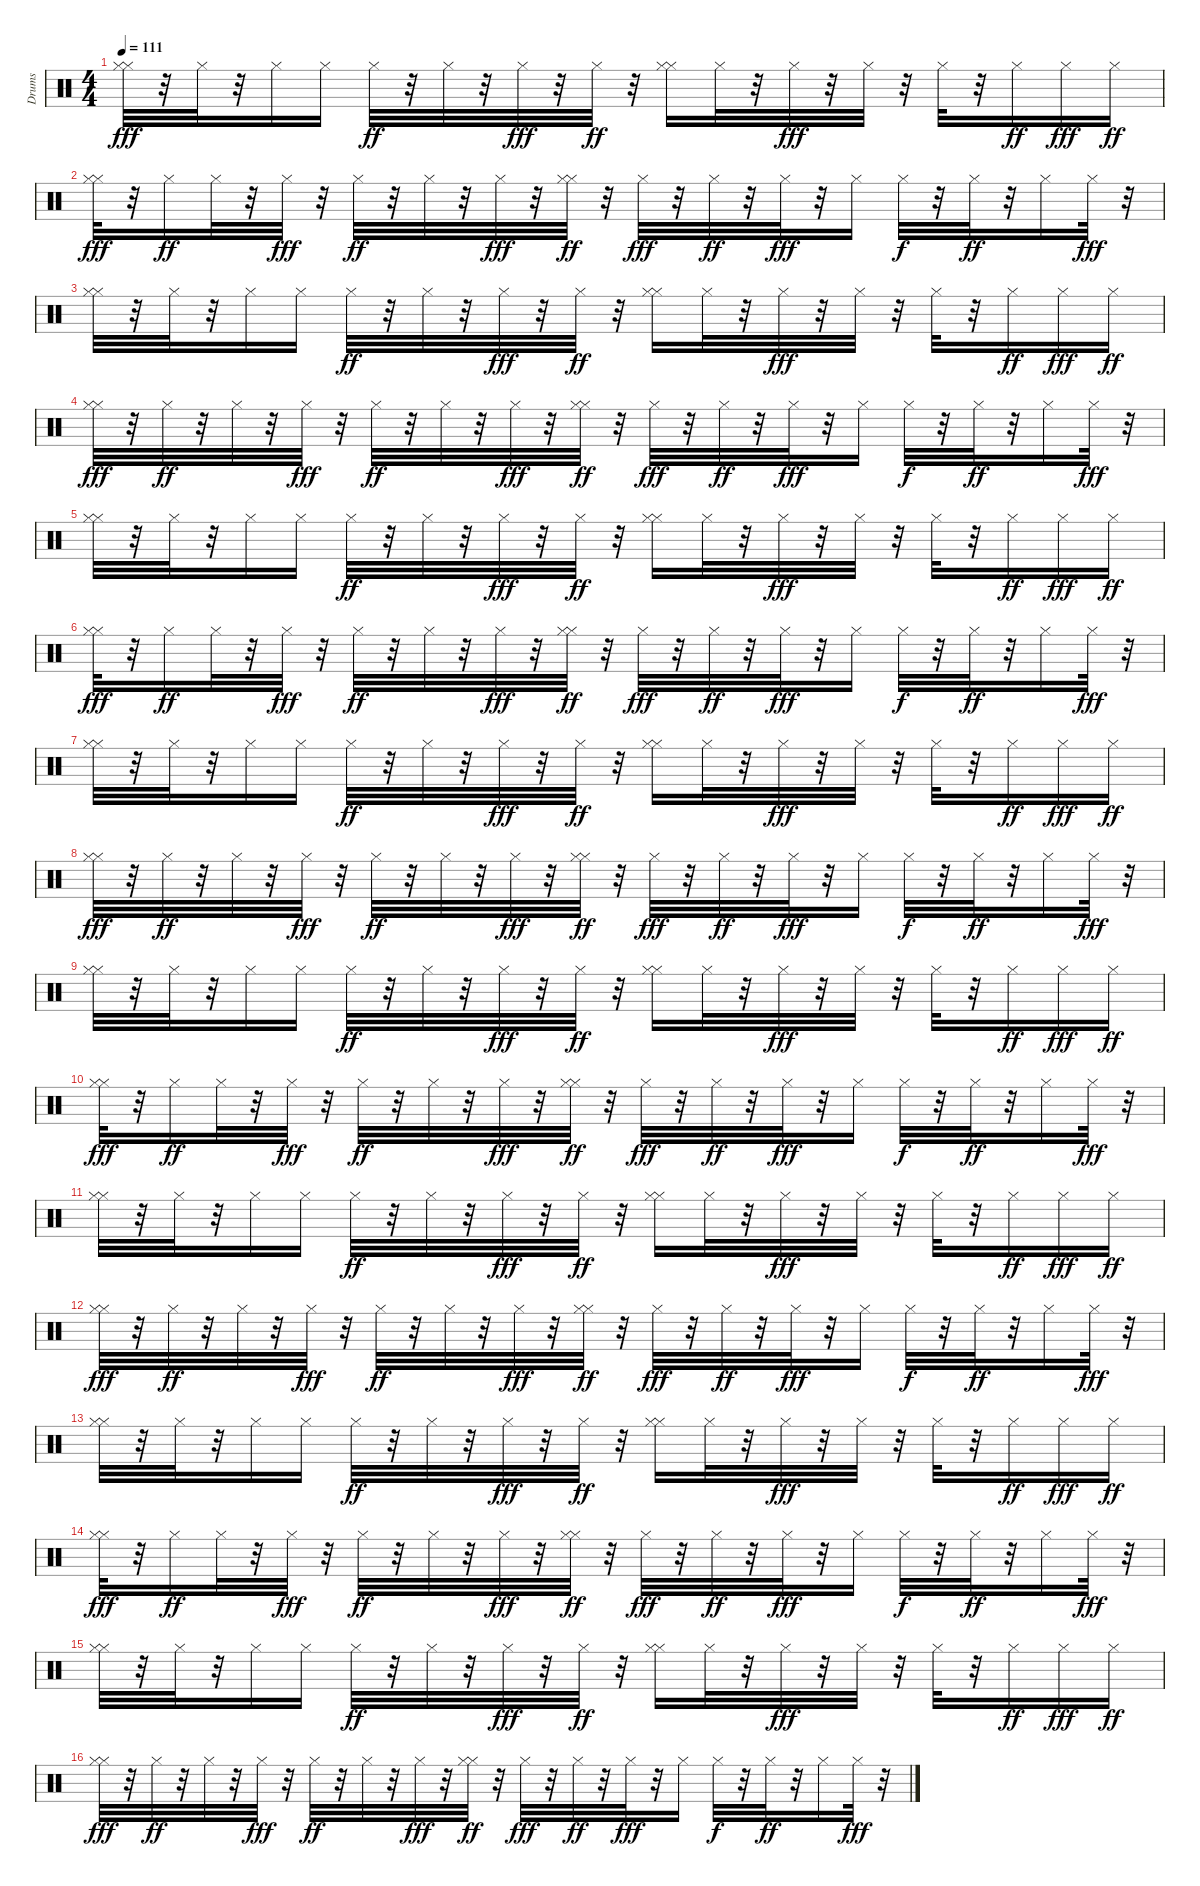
\track ("Drums" "Drums") {instrument percussion}
\staff {score}
\articulation defaults
\ts (4 4)
\tempo 111
\clef neutral
\ks c
("Hi-Hat (closed)" "Hi-Hat (closed)").32{dy fff} r.32 "Hi-Hat (closed)".32 r.32 "Hi-Hat (closed)".16 "Hi-Hat (closed)".16 "Hi-Hat (closed)".32{dy ff} r.32 "Hi-Hat (closed)".32 r.32 "Hi-Hat (closed)".32{dy fff} r.32 "Hi-Hat (closed)".32{dy ff} r.32 ("Hi-Hat (closed)" "Hi-Hat (closed)").16 "Hi-Hat (closed)".32 r.32 "Hi-Hat (closed)".32{dy fff} r.32 "Hi-Hat (closed)".32 r.32 "Hi-Hat (closed)".32 r.32 "Hi-Hat (closed)".16{dy ff} "Hi-Hat (closed)".16{dy fff} "Hi-Hat (closed)".16{dy ff} |
("Hi-Hat (closed)" "Hi-Hat (closed)").32{dy fff} r.32 "Hi-Hat (closed)".16{dy ff} "Hi-Hat (closed)".32 r.32 "Hi-Hat (closed)".32{dy fff} r.32 "Hi-Hat (closed)".32{dy ff} r.32 "Hi-Hat (closed)".32 r.32 "Hi-Hat (closed)".32{dy fff} r.32 ("Hi-Hat (closed)" "Hi-Hat (closed)").32{dy ff} r.32 "Hi-Hat (closed)".32{dy fff} r.32 "Hi-Hat (closed)".32{dy ff} r.32 "Hi-Hat (closed)".32{dy fff} r.32 "Hi-Hat (closed)".16 "Hi-Hat (closed)".32{dy f} r.32 "Hi-Hat (closed)".32{dy ff} r.32 "Hi-Hat (closed)".16 "Hi-Hat (closed)".32{dy fff} r.32 |
("Hi-Hat (closed)" "Hi-Hat (closed)").32 r.32 "Hi-Hat (closed)".32 r.32 "Hi-Hat (closed)".16 "Hi-Hat (closed)".16 "Hi-Hat (closed)".32{dy ff} r.32 "Hi-Hat (closed)".32 r.32 "Hi-Hat (closed)".32{dy fff} r.32 "Hi-Hat (closed)".32{dy ff} r.32 ("Hi-Hat (closed)" "Hi-Hat (closed)").16 "Hi-Hat (closed)".32 r.32 "Hi-Hat (closed)".32{dy fff} r.32 "Hi-Hat (closed)".32 r.32 "Hi-Hat (closed)".32 r.32 "Hi-Hat (closed)".16{dy ff} "Hi-Hat (closed)".16{dy fff} "Hi-Hat (closed)".16{dy ff} |
("Hi-Hat (closed)" "Hi-Hat (closed)").32{dy fff} r.32 "Hi-Hat (closed)".32{dy ff} r.32 "Hi-Hat (closed)".32 r.32 "Hi-Hat (closed)".32{dy fff} r.32 "Hi-Hat (closed)".32{dy ff} r.32 "Hi-Hat (closed)".32 r.32 "Hi-Hat (closed)".32{dy fff} r.32 ("Hi-Hat (closed)" "Hi-Hat (closed)").32{dy ff} r.32 "Hi-Hat (closed)".32{dy fff} r.32 "Hi-Hat (closed)".32{dy ff} r.32 "Hi-Hat (closed)".32{dy fff} r.32 "Hi-Hat (closed)".16 "Hi-Hat (closed)".32{dy f} r.32 "Hi-Hat (closed)".32{dy ff} r.32 "Hi-Hat (closed)".16 "Hi-Hat (closed)".32{dy fff} r.32 |
("Hi-Hat (closed)" "Hi-Hat (closed)").32 r.32 "Hi-Hat (closed)".32 r.32 "Hi-Hat (closed)".16 "Hi-Hat (closed)".16 "Hi-Hat (closed)".32{dy ff} r.32 "Hi-Hat (closed)".32 r.32 "Hi-Hat (closed)".32{dy fff} r.32 "Hi-Hat (closed)".32{dy ff} r.32 ("Hi-Hat (closed)" "Hi-Hat (closed)").16 "Hi-Hat (closed)".32 r.32 "Hi-Hat (closed)".32{dy fff} r.32 "Hi-Hat (closed)".32 r.32 "Hi-Hat (closed)".32 r.32 "Hi-Hat (closed)".16{dy ff} "Hi-Hat (closed)".16{dy fff} "Hi-Hat (closed)".16{dy ff} |
("Hi-Hat (closed)" "Hi-Hat (closed)").32{dy fff} r.32 "Hi-Hat (closed)".16{dy ff} "Hi-Hat (closed)".32 r.32 "Hi-Hat (closed)".32{dy fff} r.32 "Hi-Hat (closed)".32{dy ff} r.32 "Hi-Hat (closed)".32 r.32 "Hi-Hat (closed)".32{dy fff} r.32 ("Hi-Hat (closed)" "Hi-Hat (closed)").32{dy ff} r.32 "Hi-Hat (closed)".32{dy fff} r.32 "Hi-Hat (closed)".32{dy ff} r.32 "Hi-Hat (closed)".32{dy fff} r.32 "Hi-Hat (closed)".16 "Hi-Hat (closed)".32{dy f} r.32 "Hi-Hat (closed)".32{dy ff} r.32 "Hi-Hat (closed)".16 "Hi-Hat (closed)".32{dy fff} r.32 |
("Hi-Hat (closed)" "Hi-Hat (closed)").32 r.32 "Hi-Hat (closed)".32 r.32 "Hi-Hat (closed)".16 "Hi-Hat (closed)".16 "Hi-Hat (closed)".32{dy ff} r.32 "Hi-Hat (closed)".32 r.32 "Hi-Hat (closed)".32{dy fff} r.32 "Hi-Hat (closed)".32{dy ff} r.32 ("Hi-Hat (closed)" "Hi-Hat (closed)").16 "Hi-Hat (closed)".32 r.32 "Hi-Hat (closed)".32{dy fff} r.32 "Hi-Hat (closed)".32 r.32 "Hi-Hat (closed)".32 r.32 "Hi-Hat (closed)".16{dy ff} "Hi-Hat (closed)".16{dy fff} "Hi-Hat (closed)".16{dy ff} |
("Hi-Hat (closed)" "Hi-Hat (closed)").32{dy fff} r.32 "Hi-Hat (closed)".32{dy ff} r.32 "Hi-Hat (closed)".32 r.32 "Hi-Hat (closed)".32{dy fff} r.32 "Hi-Hat (closed)".32{dy ff} r.32 "Hi-Hat (closed)".32 r.32 "Hi-Hat (closed)".32{dy fff} r.32 ("Hi-Hat (closed)" "Hi-Hat (closed)").32{dy ff} r.32 "Hi-Hat (closed)".32{dy fff} r.32 "Hi-Hat (closed)".32{dy ff} r.32 "Hi-Hat (closed)".32{dy fff} r.32 "Hi-Hat (closed)".16 "Hi-Hat (closed)".32{dy f} r.32 "Hi-Hat (closed)".32{dy ff} r.32 "Hi-Hat (closed)".16 "Hi-Hat (closed)".32{dy fff} r.32 |
("Hi-Hat (closed)" "Hi-Hat (closed)").32 r.32 "Hi-Hat (closed)".32 r.32 "Hi-Hat (closed)".16 "Hi-Hat (closed)".16 "Hi-Hat (closed)".32{dy ff} r.32 "Hi-Hat (closed)".32 r.32 "Hi-Hat (closed)".32{dy fff} r.32 "Hi-Hat (closed)".32{dy ff} r.32 ("Hi-Hat (closed)" "Hi-Hat (closed)").16 "Hi-Hat (closed)".32 r.32 "Hi-Hat (closed)".32{dy fff} r.32 "Hi-Hat (closed)".32 r.32 "Hi-Hat (closed)".32 r.32 "Hi-Hat (closed)".16{dy ff} "Hi-Hat (closed)".16{dy fff} "Hi-Hat (closed)".16{dy ff} |
("Hi-Hat (closed)" "Hi-Hat (closed)").32{dy fff} r.32 "Hi-Hat (closed)".16{dy ff} "Hi-Hat (closed)".32 r.32 "Hi-Hat (closed)".32{dy fff} r.32 "Hi-Hat (closed)".32{dy ff} r.32 "Hi-Hat (closed)".32 r.32 "Hi-Hat (closed)".32{dy fff} r.32 ("Hi-Hat (closed)" "Hi-Hat (closed)").32{dy ff} r.32 "Hi-Hat (closed)".32{dy fff} r.32 "Hi-Hat (closed)".32{dy ff} r.32 "Hi-Hat (closed)".32{dy fff} r.32 "Hi-Hat (closed)".16 "Hi-Hat (closed)".32{dy f} r.32 "Hi-Hat (closed)".32{dy ff} r.32 "Hi-Hat (closed)".16 "Hi-Hat (closed)".32{dy fff} r.32 |
("Hi-Hat (closed)" "Hi-Hat (closed)").32 r.32 "Hi-Hat (closed)".32 r.32 "Hi-Hat (closed)".16 "Hi-Hat (closed)".16 "Hi-Hat (closed)".32{dy ff} r.32 "Hi-Hat (closed)".32 r.32 "Hi-Hat (closed)".32{dy fff} r.32 "Hi-Hat (closed)".32{dy ff} r.32 ("Hi-Hat (closed)" "Hi-Hat (closed)").16 "Hi-Hat (closed)".32 r.32 "Hi-Hat (closed)".32{dy fff} r.32 "Hi-Hat (closed)".32 r.32 "Hi-Hat (closed)".32 r.32 "Hi-Hat (closed)".16{dy ff} "Hi-Hat (closed)".16{dy fff} "Hi-Hat (closed)".16{dy ff} |
("Hi-Hat (closed)" "Hi-Hat (closed)").32{dy fff} r.32 "Hi-Hat (closed)".32{dy ff} r.32 "Hi-Hat (closed)".32 r.32 "Hi-Hat (closed)".32{dy fff} r.32 "Hi-Hat (closed)".32{dy ff} r.32 "Hi-Hat (closed)".32 r.32 "Hi-Hat (closed)".32{dy fff} r.32 ("Hi-Hat (closed)" "Hi-Hat (closed)").32{dy ff} r.32 "Hi-Hat (closed)".32{dy fff} r.32 "Hi-Hat (closed)".32{dy ff} r.32 "Hi-Hat (closed)".32{dy fff} r.32 "Hi-Hat (closed)".16 "Hi-Hat (closed)".32{dy f} r.32 "Hi-Hat (closed)".32{dy ff} r.32 "Hi-Hat (closed)".16 "Hi-Hat (closed)".32{dy fff} r.32 |
("Hi-Hat (closed)" "Hi-Hat (closed)").32 r.32 "Hi-Hat (closed)".32 r.32 "Hi-Hat (closed)".16 "Hi-Hat (closed)".16 "Hi-Hat (closed)".32{dy ff} r.32 "Hi-Hat (closed)".32 r.32 "Hi-Hat (closed)".32{dy fff} r.32 "Hi-Hat (closed)".32{dy ff} r.32 ("Hi-Hat (closed)" "Hi-Hat (closed)").16 "Hi-Hat (closed)".32 r.32 "Hi-Hat (closed)".32{dy fff} r.32 "Hi-Hat (closed)".32 r.32 "Hi-Hat (closed)".32 r.32 "Hi-Hat (closed)".16{dy ff} "Hi-Hat (closed)".16{dy fff} "Hi-Hat (closed)".16{dy ff} |
("Hi-Hat (closed)" "Hi-Hat (closed)").32{dy fff} r.32 "Hi-Hat (closed)".16{dy ff} "Hi-Hat (closed)".32 r.32 "Hi-Hat (closed)".32{dy fff} r.32 "Hi-Hat (closed)".32{dy ff} r.32 "Hi-Hat (closed)".32 r.32 "Hi-Hat (closed)".32{dy fff} r.32 ("Hi-Hat (closed)" "Hi-Hat (closed)").32{dy ff} r.32 "Hi-Hat (closed)".32{dy fff} r.32 "Hi-Hat (closed)".32{dy ff} r.32 "Hi-Hat (closed)".32{dy fff} r.32 "Hi-Hat (closed)".16 "Hi-Hat (closed)".32{dy f} r.32 "Hi-Hat (closed)".32{dy ff} r.32 "Hi-Hat (closed)".16 "Hi-Hat (closed)".32{dy fff} r.32 |
("Hi-Hat (closed)" "Hi-Hat (closed)").32 r.32 "Hi-Hat (closed)".32 r.32 "Hi-Hat (closed)".16 "Hi-Hat (closed)".16 "Hi-Hat (closed)".32{dy ff} r.32 "Hi-Hat (closed)".32 r.32 "Hi-Hat (closed)".32{dy fff} r.32 "Hi-Hat (closed)".32{dy ff} r.32 ("Hi-Hat (closed)" "Hi-Hat (closed)").16 "Hi-Hat (closed)".32 r.32 "Hi-Hat (closed)".32{dy fff} r.32 "Hi-Hat (closed)".32 r.32 "Hi-Hat (closed)".32 r.32 "Hi-Hat (closed)".16{dy ff} "Hi-Hat (closed)".16{dy fff} "Hi-Hat (closed)".16{dy ff} |
("Hi-Hat (closed)" "Hi-Hat (closed)").32{dy fff} r.32 "Hi-Hat (closed)".32{dy ff} r.32 "Hi-Hat (closed)".32 r.32 "Hi-Hat (closed)".32{dy fff} r.32 "Hi-Hat (closed)".32{dy ff} r.32 "Hi-Hat (closed)".32 r.32 "Hi-Hat (closed)".32{dy fff} r.32 ("Hi-Hat (closed)" "Hi-Hat (closed)").32{dy ff} r.32 "Hi-Hat (closed)".32{dy fff} r.32 "Hi-Hat (closed)".32{dy ff} r.32 "Hi-Hat (closed)".32{dy fff} r.32 "Hi-Hat (closed)".16 "Hi-Hat (closed)".32{dy f} r.32 "Hi-Hat (closed)".32{dy ff} r.32 "Hi-Hat (closed)".16 "Hi-Hat (closed)".32{dy fff} r.32
